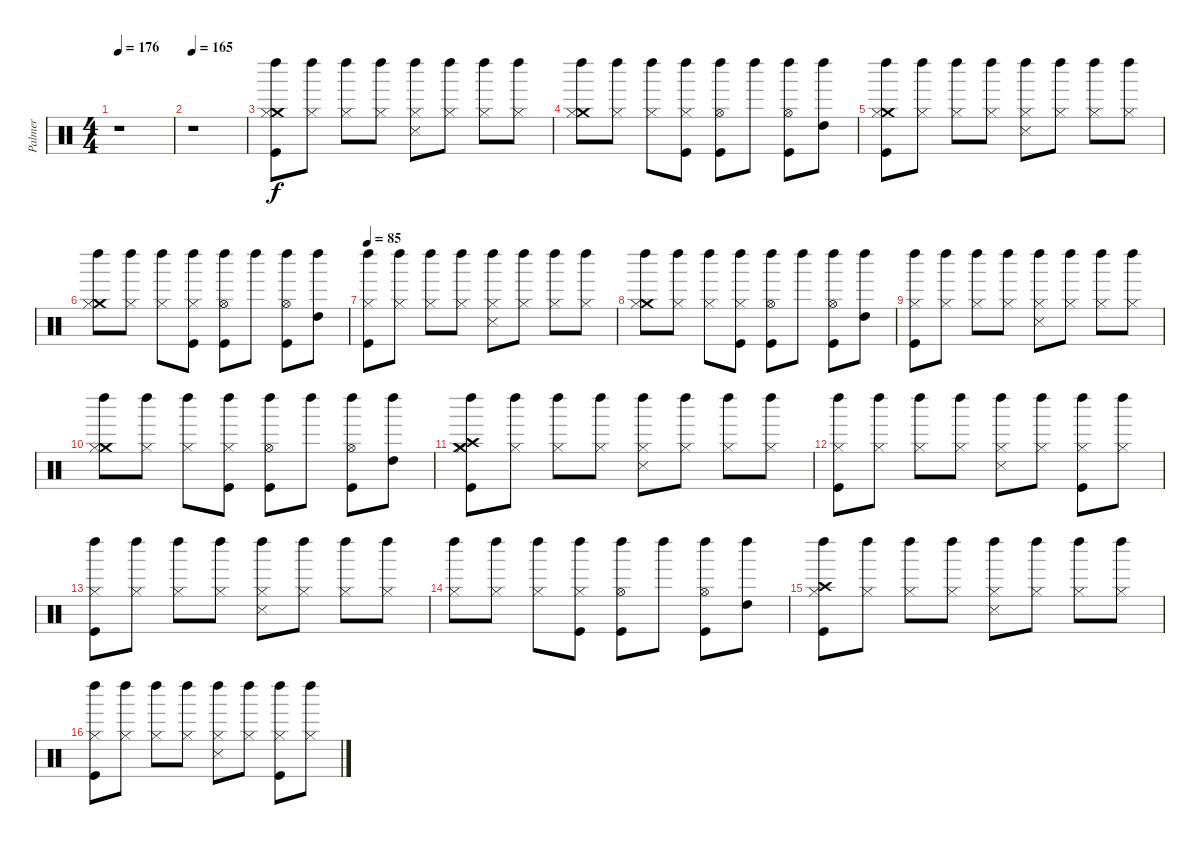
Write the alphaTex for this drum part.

\track ("Palmer" "Palmer") {instrument percussion}
\staff {score}
\articulation defaults
\ts (4 4)
\tempo 176
\clef neutral
\ks c
r.1{dy f} |
\tempo 165
r.1 |
("Crash medium (hit)" "Kick (hit)" "Hi-Hat (closed)" "Left Maraca (hit)").8 ("Hi-Hat (closed)" "Left Maraca (hit)").8 ("Hi-Hat (closed)" "Left Maraca (hit)").8 ("Hi-Hat (closed)" "Left Maraca (hit)").8 ("Hi-Hat (closed)" "Snare (side stick) 3" "Left Maraca (hit)").8 ("Hi-Hat (closed)" "Left Maraca (hit)").8 ("Hi-Hat (closed)" "Left Maraca (hit)").8 ("Hi-Hat (closed)" "Left Maraca (hit)").8 |
("Crash medium (hit)" "Hi-Hat (closed)" "Left Maraca (hit)").8 ("Hi-Hat (closed)" "Left Maraca (hit)").8 ("Hi-Hat (closed)" "Left Maraca (hit)").8 ("Kick (hit)" "Hi-Hat (closed)" "Left Maraca (hit)").8 ("Kick (hit)" "Hi-Hat (open)" "Left Maraca (hit)").8 "Left Maraca (hit)".8 ("Kick (hit)" "Hi-Hat (open)" "Left Maraca (hit)").8 ("High Tom (hit)" "Left Maraca (hit)").8 |
("Crash medium (hit)" "Kick (hit)" "Hi-Hat (closed)" "Left Maraca (hit)").8 ("Hi-Hat (closed)" "Left Maraca (hit)").8 ("Hi-Hat (closed)" "Left Maraca (hit)").8 ("Hi-Hat (closed)" "Left Maraca (hit)").8 ("Hi-Hat (closed)" "Snare (side stick) 3" "Left Maraca (hit)").8 ("Hi-Hat (closed)" "Left Maraca (hit)").8 ("Hi-Hat (closed)" "Left Maraca (hit)").8 ("Hi-Hat (closed)" "Left Maraca (hit)").8 |
("Crash medium (hit)" "Hi-Hat (closed)" "Left Maraca (hit)").8 ("Hi-Hat (closed)" "Left Maraca (hit)").8 ("Hi-Hat (closed)" "Left Maraca (hit)").8 ("Kick (hit)" "Hi-Hat (closed)" "Left Maraca (hit)").8 ("Kick (hit)" "Hi-Hat (open)" "Left Maraca (hit)").8 "Left Maraca (hit)".8 ("Kick (hit)" "Hi-Hat (open)" "Left Maraca (hit)").8 ("High Tom (hit)" "Left Maraca (hit)").8 |
\tempo 85
("Kick (hit)" "Hi-Hat (closed)" "Left Maraca (hit)").8 ("Hi-Hat (closed)" "Left Maraca (hit)").8 ("Hi-Hat (closed)" "Left Maraca (hit)").8 ("Hi-Hat (closed)" "Left Maraca (hit)").8 ("Hi-Hat (closed)" "Snare (side stick) 3" "Left Maraca (hit)").8 ("Hi-Hat (closed)" "Left Maraca (hit)").8 ("Hi-Hat (closed)" "Left Maraca (hit)").8 ("Hi-Hat (closed)" "Left Maraca (hit)").8 |
("Crash medium (hit)" "Hi-Hat (closed)" "Left Maraca (hit)").8 ("Hi-Hat (closed)" "Left Maraca (hit)").8 ("Hi-Hat (closed)" "Left Maraca (hit)").8 ("Kick (hit)" "Hi-Hat (closed)" "Left Maraca (hit)").8 ("Kick (hit)" "Hi-Hat (open)" "Left Maraca (hit)").8 "Left Maraca (hit)".8 ("Kick (hit)" "Hi-Hat (open)" "Left Maraca (hit)").8 ("High Tom (hit)" "Left Maraca (hit)").8 |
("Kick (hit)" "Hi-Hat (closed)" "Left Maraca (hit)").8 ("Hi-Hat (closed)" "Left Maraca (hit)").8 ("Hi-Hat (closed)" "Left Maraca (hit)").8 ("Hi-Hat (closed)" "Left Maraca (hit)").8 ("Hi-Hat (closed)" "Snare (side stick) 3" "Left Maraca (hit)").8 ("Hi-Hat (closed)" "Left Maraca (hit)").8 ("Hi-Hat (closed)" "Left Maraca (hit)").8 ("Hi-Hat (closed)" "Left Maraca (hit)").8 |
("Crash medium (hit)" "Hi-Hat (closed)" "Left Maraca (hit)").8 ("Hi-Hat (closed)" "Left Maraca (hit)").8 ("Hi-Hat (closed)" "Left Maraca (hit)").8 ("Kick (hit)" "Hi-Hat (closed)" "Left Maraca (hit)").8 ("Kick (hit)" "Hi-Hat (open)" "Left Maraca (hit)").8 "Left Maraca (hit)".8 ("Kick (hit)" "Hi-Hat (open)" "Left Maraca (hit)").8 ("High Tom (hit)" "Left Maraca (hit)").8 |
("Crash medium (hit)" "Kick (hit)" "Hi-Hat (closed)" "Crash high (hit)" "Left Maraca (hit)").8 ("Hi-Hat (closed)" "Left Maraca (hit)").8 ("Hi-Hat (closed)" "Left Maraca (hit)").8 ("Hi-Hat (closed)" "Left Maraca (hit)").8 ("Hi-Hat (closed)" "Snare (side stick) 3" "Left Maraca (hit)").8 ("Hi-Hat (closed)" "Left Maraca (hit)").8 ("Hi-Hat (closed)" "Left Maraca (hit)").8 ("Hi-Hat (closed)" "Left Maraca (hit)").8 |
("Kick (hit)" "Hi-Hat (closed)" "Left Maraca (hit)").8 ("Hi-Hat (closed)" "Left Maraca (hit)").8 ("Hi-Hat (closed)" "Left Maraca (hit)").8 ("Hi-Hat (closed)" "Left Maraca (hit)").8 ("Hi-Hat (closed)" "Snare (side stick) 3" "Left Maraca (hit)").8 ("Hi-Hat (closed)" "Left Maraca (hit)").8 ("Kick (hit)" "Hi-Hat (closed)" "Left Maraca (hit)").8 ("Hi-Hat (closed)" "Left Maraca (hit)").8 |
("Kick (hit)" "Hi-Hat (closed)" "Left Maraca (hit)").8 ("Hi-Hat (closed)" "Left Maraca (hit)").8 ("Hi-Hat (closed)" "Left Maraca (hit)").8 ("Hi-Hat (closed)" "Left Maraca (hit)").8 ("Hi-Hat (closed)" "Snare (side stick) 3" "Left Maraca (hit)").8 ("Hi-Hat (closed)" "Left Maraca (hit)").8 ("Hi-Hat (closed)" "Left Maraca (hit)").8 ("Hi-Hat (closed)" "Left Maraca (hit)").8 |
("Hi-Hat (closed)" "Left Maraca (hit)").8 ("Hi-Hat (closed)" "Left Maraca (hit)").8 ("Hi-Hat (closed)" "Left Maraca (hit)").8 ("Kick (hit)" "Hi-Hat (closed)" "Left Maraca (hit)").8 ("Kick (hit)" "Hi-Hat (open)" "Left Maraca (hit)").8 "Left Maraca (hit)".8 ("Kick (hit)" "Hi-Hat (open)" "Left Maraca (hit)").8 ("High Tom (hit)" "Left Maraca (hit)").8 |
("Kick (hit)" "Hi-Hat (closed)" "Crash high (hit)" "Left Maraca (hit)").8 ("Hi-Hat (closed)" "Left Maraca (hit)").8 ("Hi-Hat (closed)" "Left Maraca (hit)").8 ("Hi-Hat (closed)" "Left Maraca (hit)").8 ("Hi-Hat (closed)" "Snare (side stick) 3" "Left Maraca (hit)").8 ("Hi-Hat (closed)" "Left Maraca (hit)").8 ("Hi-Hat (closed)" "Left Maraca (hit)").8 ("Hi-Hat (closed)" "Left Maraca (hit)").8 |
("Kick (hit)" "Hi-Hat (closed)" "Left Maraca (hit)").8 ("Hi-Hat (closed)" "Left Maraca (hit)").8 ("Hi-Hat (closed)" "Left Maraca (hit)").8 ("Hi-Hat (closed)" "Left Maraca (hit)").8 ("Hi-Hat (closed)" "Snare (side stick) 3" "Left Maraca (hit)").8 ("Hi-Hat (closed)" "Left Maraca (hit)").8 ("Kick (hit)" "Hi-Hat (closed)" "Left Maraca (hit)").8 ("Hi-Hat (closed)" "Left Maraca (hit)").8
